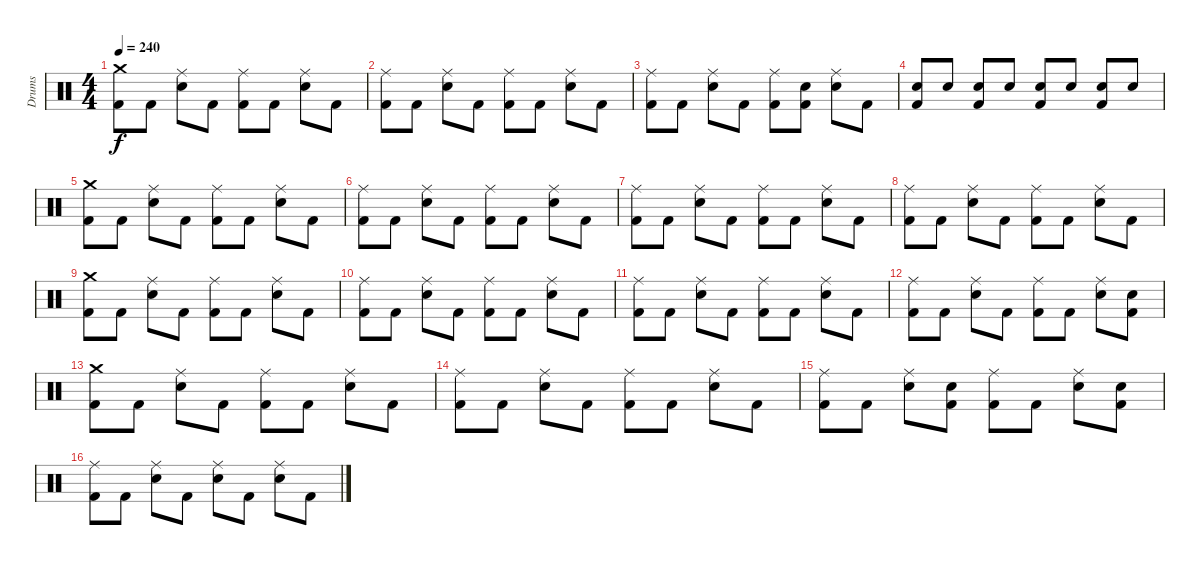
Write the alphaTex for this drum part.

\track ("Drums" "Drums") {instrument percussion}
\staff {score}
\articulation defaults
\ts (4 4)
\tempo 240
\clef neutral
\ks c
("Crash medium (hit)" "Kick (hit) 2").8{dy f} "Kick (hit) 2".8 ("Ride (middle)" "Snare (hit) 2").8 "Kick (hit) 2".8 ("Ride (middle)" "Kick (hit) 2").8 "Kick (hit) 2".8 ("Ride (middle)" "Snare (hit) 2").8 "Kick (hit) 2".8 |
("Ride (middle)" "Kick (hit) 2").8 "Kick (hit) 2".8 ("Ride (middle)" "Snare (hit) 2").8 "Kick (hit) 2".8 ("Ride (middle)" "Kick (hit) 2").8 "Kick (hit) 2".8 ("Ride (middle)" "Snare (hit) 2").8 "Kick (hit) 2".8 |
("Ride (middle)" "Kick (hit) 2").8 "Kick (hit) 2".8 ("Ride (middle)" "Snare (hit) 2").8 "Kick (hit) 2".8 ("Ride (middle)" "Kick (hit) 2").8 ("Snare (hit) 2" "Kick (hit) 2").8 ("Ride (middle)" "Snare (hit) 2").8 "Kick (hit) 2".8 |
("Snare (hit) 2" "Kick (hit) 2").8 "Snare (hit) 2".8 ("Snare (hit) 2" "Kick (hit) 2").8 "Snare (hit) 2".8 ("Snare (hit) 2" "Kick (hit) 2").8 "Snare (hit) 2".8 ("Snare (hit) 2" "Kick (hit) 2").8 "Snare (hit) 2".8 |
("Crash medium (hit)" "Kick (hit) 2").8 "Kick (hit) 2".8 ("Ride (middle)" "Snare (hit) 2").8 "Kick (hit) 2".8 ("Ride (middle)" "Kick (hit) 2").8 "Kick (hit) 2".8 ("Ride (middle)" "Snare (hit) 2").8 "Kick (hit) 2".8 |
("Ride (middle)" "Kick (hit) 2").8 "Kick (hit) 2".8 ("Ride (middle)" "Snare (hit) 2").8 "Kick (hit) 2".8 ("Ride (middle)" "Kick (hit) 2").8 "Kick (hit) 2".8 ("Ride (middle)" "Snare (hit) 2").8 "Kick (hit) 2".8 |
("Ride (middle)" "Kick (hit) 2").8 "Kick (hit) 2".8 ("Ride (middle)" "Snare (hit) 2").8 "Kick (hit) 2".8 ("Ride (middle)" "Kick (hit) 2").8 "Kick (hit) 2".8 ("Ride (middle)" "Snare (hit) 2").8 "Kick (hit) 2".8 |
("Ride (middle)" "Kick (hit) 2").8 "Kick (hit) 2".8 ("Ride (middle)" "Snare (hit) 2").8 "Kick (hit) 2".8 ("Ride (middle)" "Kick (hit) 2").8 "Kick (hit) 2".8 ("Ride (middle)" "Snare (hit) 2").8 "Kick (hit) 2".8 |
("Crash medium (hit)" "Kick (hit) 2").8 "Kick (hit) 2".8 ("Ride (middle)" "Snare (hit) 2").8 "Kick (hit) 2".8 ("Ride (middle)" "Kick (hit) 2").8 "Kick (hit) 2".8 ("Ride (middle)" "Snare (hit) 2").8 "Kick (hit) 2".8 |
("Ride (middle)" "Kick (hit) 2").8 "Kick (hit) 2".8 ("Ride (middle)" "Snare (hit) 2").8 "Kick (hit) 2".8 ("Ride (middle)" "Kick (hit) 2").8 "Kick (hit) 2".8 ("Ride (middle)" "Snare (hit) 2").8 "Kick (hit) 2".8 |
("Ride (middle)" "Kick (hit) 2").8 "Kick (hit) 2".8 ("Ride (middle)" "Snare (hit) 2").8 "Kick (hit) 2".8 ("Ride (middle)" "Kick (hit) 2").8 "Kick (hit) 2".8 ("Ride (middle)" "Snare (hit) 2").8 "Kick (hit) 2".8 |
("Ride (middle)" "Kick (hit) 2").8 "Kick (hit) 2".8 ("Ride (middle)" "Snare (hit) 2").8 "Kick (hit) 2".8 ("Ride (middle)" "Kick (hit) 2").8 "Kick (hit) 2".8 ("Ride (middle)" "Snare (hit) 2").8 ("Snare (hit) 2" "Kick (hit) 2").8 |
("Crash medium (hit)" "Kick (hit) 2").8 "Kick (hit) 2".8 ("Ride (middle)" "Snare (hit) 2").8 "Kick (hit) 2".8 ("Ride (middle)" "Kick (hit) 2").8 "Kick (hit) 2".8 ("Ride (middle)" "Snare (hit) 2").8 "Kick (hit) 2".8 |
("Ride (middle)" "Kick (hit) 2").8 "Kick (hit) 2".8 ("Ride (middle)" "Snare (hit) 2").8 "Kick (hit) 2".8 ("Ride (middle)" "Kick (hit) 2").8 "Kick (hit) 2".8 ("Ride (middle)" "Snare (hit) 2").8 "Kick (hit) 2".8 |
("Ride (middle)" "Kick (hit) 2").8 "Kick (hit) 2".8 ("Ride (middle)" "Snare (hit) 2").8 ("Snare (hit) 2" "Kick (hit) 2").8 ("Ride (middle)" "Kick (hit) 2").8 "Kick (hit) 2".8 ("Ride (middle)" "Snare (hit) 2").8 ("Snare (hit) 2" "Kick (hit) 2").8 |
("Ride (middle)" "Kick (hit) 2").8 "Kick (hit) 2".8 ("Ride (middle)" "Snare (hit) 2").8 "Kick (hit) 2".8 ("Ride (middle)" "Snare (hit) 2").8 "Kick (hit) 2".8 ("Ride (middle)" "Snare (hit) 2").8 "Kick (hit) 2".8
